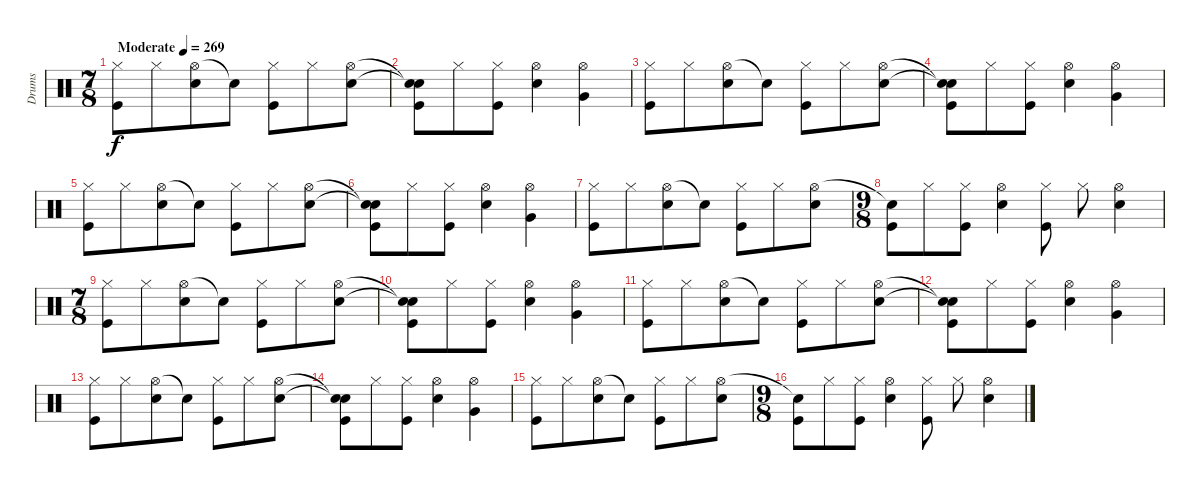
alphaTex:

\track ("Drums" "Drums") {instrument percussion}
\staff {score}
\articulation defaults
\ts (7 8)
\tempo (269 "Moderate")
\clef neutral
\ks c
("Hi-Hat (closed)" "Kick (hit)").8{dy f} "Hi-Hat (closed)".8 ("Hi-Hat (open)" "Electric Snare (hit)").8 "Snare (hit)"{t}.8 ("Hi-Hat (closed)" "Kick (hit)").8 "Hi-Hat (closed)".8 ("Hi-Hat (open)" "Electric Snare (hit)").8 |
("Snare (hit)"{t} "Snare (hit)"{t} "Kick (hit)").8 "Hi-Hat (closed)".8 ("Hi-Hat (closed)" "Kick (hit)").8 ("Hi-Hat (open)" "Electric Snare (hit)").4 ("Hi-Hat (open)" "Very Low Tom (hit)").4 |
("Hi-Hat (closed)" "Kick (hit)").8 "Hi-Hat (closed)".8 ("Hi-Hat (open)" "Electric Snare (hit)").8 "Snare (hit)"{t}.8 ("Hi-Hat (closed)" "Kick (hit)").8 "Hi-Hat (closed)".8 ("Hi-Hat (open)" "Electric Snare (hit)").8 |
("Snare (hit)"{t} "Snare (hit)"{t} "Kick (hit)").8 "Hi-Hat (closed)".8 ("Hi-Hat (closed)" "Kick (hit)").8 ("Hi-Hat (open)" "Electric Snare (hit)").4 ("Hi-Hat (open)" "Very Low Tom (hit)").4 |
("Hi-Hat (closed)" "Kick (hit)").8 "Hi-Hat (closed)".8 ("Hi-Hat (open)" "Electric Snare (hit)").8 "Snare (hit)"{t}.8 ("Hi-Hat (closed)" "Kick (hit)").8 "Hi-Hat (closed)".8 ("Hi-Hat (open)" "Electric Snare (hit)").8 |
("Snare (hit)"{t} "Snare (hit)"{t} "Kick (hit)").8 "Hi-Hat (closed)".8 ("Hi-Hat (closed)" "Kick (hit)").8 ("Hi-Hat (open)" "Electric Snare (hit)").4 ("Hi-Hat (open)" "Very Low Tom (hit)").4 |
("Hi-Hat (closed)" "Kick (hit)").8 "Hi-Hat (closed)".8 ("Hi-Hat (open)" "Electric Snare (hit)").8 "Snare (hit)"{t}.8 ("Hi-Hat (closed)" "Kick (hit)").8 "Hi-Hat (closed)".8 ("Hi-Hat (open)" "Electric Snare (hit)").8 |
\ts (9 8)
("Snare (hit)"{t} "Kick (hit)").8 "Hi-Hat (closed)".8 ("Hi-Hat (closed)" "Kick (hit)").8 ("Hi-Hat (open)" "Electric Snare (hit)").4 ("Hi-Hat (closed)" "Kick (hit)").8 "Hi-Hat (closed)".8 ("Hi-Hat (open)" "Electric Snare (hit)").4 |
\ts (7 8)
("Hi-Hat (closed)" "Kick (hit)").8 "Hi-Hat (closed)".8 ("Hi-Hat (open)" "Electric Snare (hit)").8 "Snare (hit)"{t}.8 ("Hi-Hat (closed)" "Kick (hit)").8 "Hi-Hat (closed)".8 ("Hi-Hat (open)" "Electric Snare (hit)").8 |
("Snare (hit)"{t} "Snare (hit)"{t} "Kick (hit)").8 "Hi-Hat (closed)".8 ("Hi-Hat (closed)" "Kick (hit)").8 ("Hi-Hat (open)" "Electric Snare (hit)").4 ("Hi-Hat (open)" "Very Low Tom (hit)").4 |
("Hi-Hat (closed)" "Kick (hit)").8 "Hi-Hat (closed)".8 ("Hi-Hat (open)" "Electric Snare (hit)").8 "Snare (hit)"{t}.8 ("Hi-Hat (closed)" "Kick (hit)").8 "Hi-Hat (closed)".8 ("Hi-Hat (open)" "Electric Snare (hit)").8 |
("Snare (hit)"{t} "Snare (hit)"{t} "Kick (hit)").8 "Hi-Hat (closed)".8 ("Hi-Hat (closed)" "Kick (hit)").8 ("Hi-Hat (open)" "Electric Snare (hit)").4 ("Hi-Hat (open)" "Very Low Tom (hit)").4 |
("Hi-Hat (closed)" "Kick (hit)").8 "Hi-Hat (closed)".8 ("Hi-Hat (open)" "Electric Snare (hit)").8 "Snare (hit)"{t}.8 ("Hi-Hat (closed)" "Kick (hit)").8 "Hi-Hat (closed)".8 ("Hi-Hat (open)" "Electric Snare (hit)").8 |
("Snare (hit)"{t} "Snare (hit)"{t} "Kick (hit)").8 "Hi-Hat (closed)".8 ("Hi-Hat (closed)" "Kick (hit)").8 ("Hi-Hat (open)" "Electric Snare (hit)").4 ("Hi-Hat (open)" "Very Low Tom (hit)").4 |
("Hi-Hat (closed)" "Kick (hit)").8 "Hi-Hat (closed)".8 ("Hi-Hat (open)" "Electric Snare (hit)").8 "Snare (hit)"{t}.8 ("Hi-Hat (closed)" "Kick (hit)").8 "Hi-Hat (closed)".8 ("Hi-Hat (open)" "Electric Snare (hit)").8 |
\ts (9 8)
("Snare (hit)"{t} "Kick (hit)").8 "Hi-Hat (closed)".8 ("Hi-Hat (closed)" "Kick (hit)").8 ("Hi-Hat (open)" "Electric Snare (hit)").4 ("Hi-Hat (closed)" "Kick (hit)").8 "Hi-Hat (closed)".8 ("Hi-Hat (open)" "Electric Snare (hit)").4
